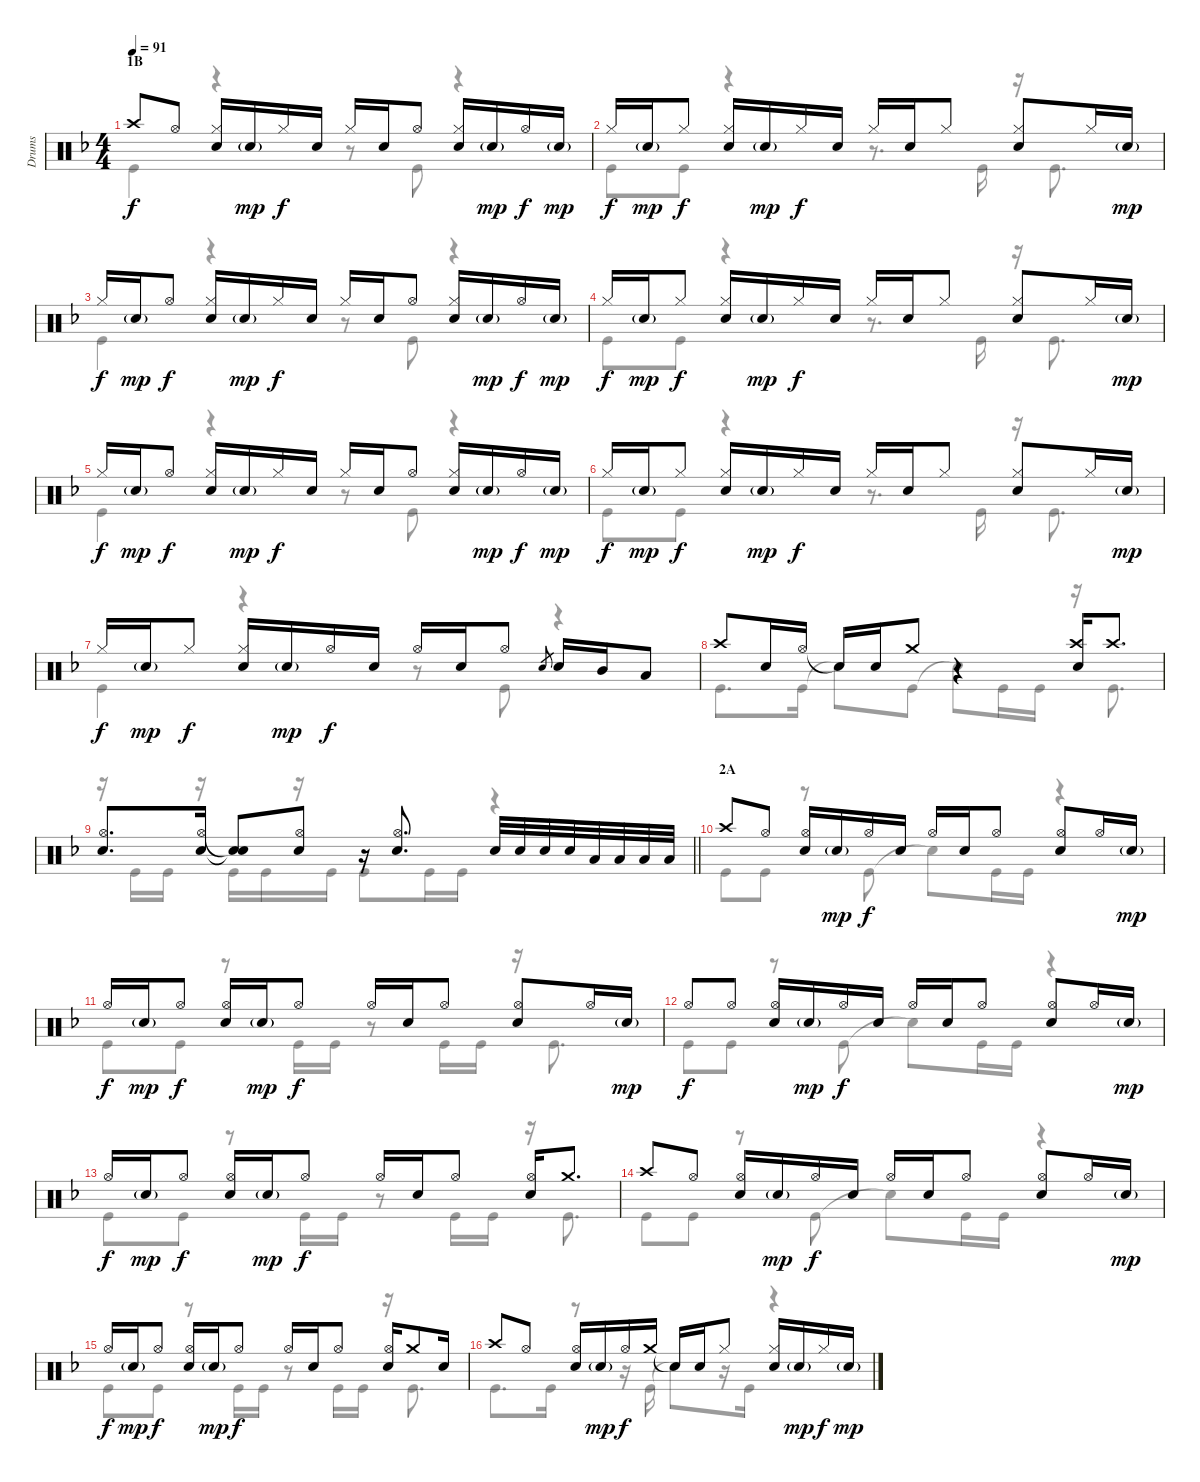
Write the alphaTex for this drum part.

\track ("Drums" "Drums") {instrument percussion}
\staff {score}
\articulation defaults
\voice
\ts (4 4)
\section ("" "1B")
\tempo 91
\clef neutral
\ks f "Crash high (hit)".8{dy f} "Hi-Hat (open)".8
("Hi-Hat (closed)" "Snare (hit) 2").16 "Snare (hit) 2"{g}.16{dy mp} "Hi-Hat (closed)".16{dy f} "Snare (hit) 2".16 "Hi-Hat (closed)".16 "Snare (hit) 2".16 "Hi-Hat (open)".8 ("Hi-Hat (closed)" "Snare (hit) 2").16 "Snare (hit) 2"{g}.16{dy mp} "Hi-Hat (open)".16{dy f} "Snare (hit) 2"{g}.16{dy mp} |
"Hi-Hat (closed)".16{dy f} "Snare (hit) 2"{g}.16{dy mp} "Hi-Hat (closed)".8{dy f} ("Hi-Hat (closed)" "Snare (hit) 2").16 "Snare (hit) 2"{g}.16{dy mp} "Hi-Hat (closed)".16{dy f} "Snare (hit) 2".16 "Hi-Hat (closed)".16 "Snare (hit) 2".16 "Hi-Hat (closed)".8 ("Hi-Hat (closed)" "Snare (hit) 2").8 "Hi-Hat (closed)".16 "Snare (hit) 2"{g}.16{dy mp} |
"Hi-Hat (closed)".16{dy f} "Snare (hit) 2"{g}.16{dy mp} "Hi-Hat (open)".8{dy f} ("Hi-Hat (closed)" "Snare (hit) 2").16 "Snare (hit) 2"{g}.16{dy mp} "Hi-Hat (closed)".16{dy f} "Snare (hit) 2".16 "Hi-Hat (closed)".16 "Snare (hit) 2".16 "Hi-Hat (open)".8 ("Hi-Hat (closed)" "Snare (hit) 2").16 "Snare (hit) 2"{g}.16{dy mp} "Hi-Hat (open)".16{dy f} "Snare (hit) 2"{g}.16{dy mp} |
"Hi-Hat (closed)".16{dy f} "Snare (hit) 2"{g}.16{dy mp} "Hi-Hat (closed)".8{dy f} ("Hi-Hat (closed)" "Snare (hit) 2").16 "Snare (hit) 2"{g}.16{dy mp} "Hi-Hat (closed)".16{dy f} "Snare (hit) 2".16 "Hi-Hat (closed)".16 "Snare (hit) 2".16 "Hi-Hat (closed)".8 ("Hi-Hat (closed)" "Snare (hit) 2").8 "Hi-Hat (closed)".16 "Snare (hit) 2"{g}.16{dy mp} |
"Hi-Hat (closed)".16{dy f} "Snare (hit) 2"{g}.16{dy mp} "Hi-Hat (open)".8{dy f} ("Hi-Hat (closed)" "Snare (hit) 2").16 "Snare (hit) 2"{g}.16{dy mp} "Hi-Hat (closed)".16{dy f} "Snare (hit) 2".16 "Hi-Hat (closed)".16 "Snare (hit) 2".16 "Hi-Hat (open)".8 ("Hi-Hat (closed)" "Snare (hit) 2").16 "Snare (hit) 2"{g}.16{dy mp} "Hi-Hat (open)".16{dy f} "Snare (hit) 2"{g}.16{dy mp} |
"Hi-Hat (closed)".16{dy f} "Snare (hit) 2"{g}.16{dy mp} "Hi-Hat (closed)".8{dy f} ("Hi-Hat (closed)" "Snare (hit) 2").16 "Snare (hit) 2"{g}.16{dy mp} "Hi-Hat (closed)".16{dy f} "Snare (hit) 2".16 "Hi-Hat (closed)".16 "Snare (hit) 2".16 "Hi-Hat (closed)".8 ("Hi-Hat (closed)" "Snare (hit) 2").8 "Hi-Hat (closed)".16 "Snare (hit) 2"{g}.16{dy mp} |
"Hi-Hat (closed)".16{dy f} "Snare (hit) 2"{g}.16{dy mp} "Hi-Hat (closed)".8{dy f} ("Hi-Hat (closed)" "Snare (hit) 2").16 "Snare (hit) 2"{g}.16{dy mp} "Hi-Hat (open)".16{dy f} "Snare (hit) 2".16 "Hi-Hat (open)".16 "Snare (hit) 2".16 "Hi-Hat (open)".8 "Snare (hit) 2".8{gr} "Snare (hit) 2".16 "Mid Tom (hit)".16 "Low Tom (hit)".8 |
"Crash high (hit)".8 "Snare (hit) 2".16 "Hi-Hat (open)".16 "Snare (hit)"{t}.16 "Snare (hit) 2".16 "Crash medium (hit)".8 r.4 ("Crash high (hit)" "Snare (hit) 2").16 "Crash high (hit)".8{d} |
\barLineRight lightlight
("Hi-Hat (open)" "Snare (hit) 2").8{d} ("Hi-Hat (open)" "Snare (hit) 2").16 ("Snare (hit)"{t} "Snare (hit)"{t}).8 ("Hi-Hat (open)" "Snare (hit) 2").8 r.16 ("Hi-Hat (open)" "Snare (hit) 2").8{d} "Snare (hit) 2".32 "Snare (hit) 2".32 "Snare (hit) 2".32 "Snare (hit) 2".32 "Low Tom (hit)".32 "Low Tom (hit)".32 "Low Tom (hit)".32 "Low Tom (hit)".32 |
\section ("" "2A")
"Crash high (hit)".8 "Hi-Hat (open)".8 ("Hi-Hat (open)" "Snare (hit) 2").16 "Snare (hit) 2"{g}.16{dy mp} "Hi-Hat (open)".16{dy f} "Snare (hit) 2".16 "Hi-Hat (open)".16 "Snare (hit) 2".16 "Hi-Hat (open)".8 ("Hi-Hat (open)" "Snare (hit) 2").8 "Hi-Hat (open)".16 "Snare (hit) 2"{g}.16{dy mp} |
"Hi-Hat (open)".16{dy f} "Snare (hit) 2"{g}.16{dy mp} "Hi-Hat (open)".8{dy f} ("Hi-Hat (open)" "Snare (hit) 2").16 "Snare (hit) 2"{g}.16{dy mp} "Hi-Hat (open)".8{dy f} "Hi-Hat (open)".16 "Snare (hit) 2".16 "Hi-Hat (open)".8 ("Hi-Hat (open)" "Snare (hit) 2").8 "Hi-Hat (open)".16 "Snare (hit) 2"{g}.16{dy mp} |
"Hi-Hat (open)".8{dy f} "Hi-Hat (open)".8 ("Hi-Hat (open)" "Snare (hit) 2").16 "Snare (hit) 2"{g}.16{dy mp} "Hi-Hat (open)".16{dy f} "Snare (hit) 2".16 "Hi-Hat (open)".16 "Snare (hit) 2".16 "Hi-Hat (open)".8 ("Hi-Hat (open)" "Snare (hit) 2").8 "Hi-Hat (open)".16 "Snare (hit) 2"{g}.16{dy mp} |
"Hi-Hat (open)".16{dy f} "Snare (hit) 2"{g}.16{dy mp} "Hi-Hat (open)".8{dy f} ("Hi-Hat (open)" "Snare (hit) 2").16 "Snare (hit) 2"{g}.16{dy mp} "Hi-Hat (open)".8{dy f} "Hi-Hat (open)".16 "Snare (hit) 2".16 "Hi-Hat (open)".8 ("Hi-Hat (open)" "Snare (hit) 2").16 "Crash medium (hit)".8{d} |
"Crash high (hit)".8 "Hi-Hat (open)".8 ("Hi-Hat (open)" "Snare (hit) 2").16 "Snare (hit) 2"{g}.16{dy mp} "Hi-Hat (open)".16{dy f} "Snare (hit) 2".16 "Hi-Hat (open)".16 "Snare (hit) 2".16 "Hi-Hat (open)".8 ("Hi-Hat (open)" "Snare (hit) 2").8 "Hi-Hat (open)".16 "Snare (hit) 2"{g}.16{dy mp} |
"Hi-Hat (open)".16{dy f} "Snare (hit) 2"{g}.16{dy mp} "Hi-Hat (open)".8{dy f} ("Hi-Hat (open)" "Snare (hit) 2").16 "Snare (hit) 2"{g}.16{dy mp} "Hi-Hat (open)".8{dy f} "Hi-Hat (open)".16 "Snare (hit) 2".16 "Hi-Hat (open)".8 ("Hi-Hat (open)" "Snare (hit) 2").16 "Crash medium (hit)".8 "Snare (hit) 2".16 |
"Crash high (hit)".8 "Hi-Hat (open)".8 ("Hi-Hat (open)" "Snare (hit) 2").16 "Snare (hit) 2"{g}.16{dy mp} "Hi-Hat (open)".16{dy f} "Crash medium (hit)".16 "Snare (hit)"{t}.16 "Snare (hit) 2".16 "Hi-Hat (closed)".8 ("Hi-Hat (closed)" "Snare (hit) 2").16 "Snare (hit) 2"{g}.16{dy mp} "Hi-Hat (closed)".16{dy f} "Snare (hit) 2"{g}.16{dy mp}
\voice
\clef neutral
\ottava regular
\simile none
\ks f "Kick (hit)".4{dy f}
r.4 r.8 "Kick (hit)".8 r.4 |
"Kick (hit)".8 "Kick (hit)".8 r.4 r.8{d} "Kick (hit)".16 r.16 "Kick (hit)".8{d} |
"Kick (hit)".4 r.4 r.8 "Kick (hit)".8 r.4 |
"Kick (hit)".8 "Kick (hit)".8 r.4 r.8{d} "Kick (hit)".16 r.16 "Kick (hit)".8{d} |
"Kick (hit)".4 r.4 r.8 "Kick (hit)".8 r.4 |
"Kick (hit)".8 "Kick (hit)".8 r.4 r.8{d} "Kick (hit)".16 r.16 "Kick (hit)".8{d} |
"Kick (hit)".4 r.4 r.8 "Kick (hit)".8 r.4 |
"Kick (hit)".8{d} "Kick (hit)".16 "Snare (hit)"{t}.8 "Kick (hit)".8 "Snare (hit)"{t}.8 "Kick (hit)".16 "Kick (hit)".16 r.16 "Kick (hit)".8{d} |
\barLineRight lightlight
r.16 "Kick (hit)".16 "Kick (hit)".16 r.16 "Kick (hit)".16 "Kick (hit)".16 r.16 "Kick (hit)".16 "Kick (hit)".8 "Kick (hit)".16 "Kick (hit)".16 r.4 |
"Kick (hit)".8 "Kick (hit)".8 r.8 "Kick (hit)".8 "Snare (hit)"{t}.8 "Kick (hit)".16 "Kick (hit)".16 r.4 |
"Kick (hit)".8 "Kick (hit)".8 r.8 "Kick (hit)".16 "Kick (hit)".16 r.8 "Kick (hit)".16 "Kick (hit)".16 r.16 "Kick (hit)".8{d} |
"Kick (hit)".8 "Kick (hit)".8 r.8 "Kick (hit)".8 "Snare (hit)"{t}.8 "Kick (hit)".16 "Kick (hit)".16 r.4 |
"Kick (hit)".8 "Kick (hit)".8 r.8 "Kick (hit)".16 "Kick (hit)".16 r.8 "Kick (hit)".16 "Kick (hit)".16 r.16 "Kick (hit)".8{d} |
"Kick (hit)".8 "Kick (hit)".8 r.8 "Kick (hit)".8 "Snare (hit)"{t}.8 "Kick (hit)".16 "Kick (hit)".16 r.4 |
"Kick (hit)".8 "Kick (hit)".8 r.8 "Kick (hit)".16 "Kick (hit)".16 r.8 "Kick (hit)".16 "Kick (hit)".16 r.16 "Kick (hit)".8{d} |
"Kick (hit)".8{d} "Kick (hit)".16 r.8 r.16 "Kick (hit)".16 "Snare (hit)"{t}.8 r.16 "Kick (hit)".16 r.4
